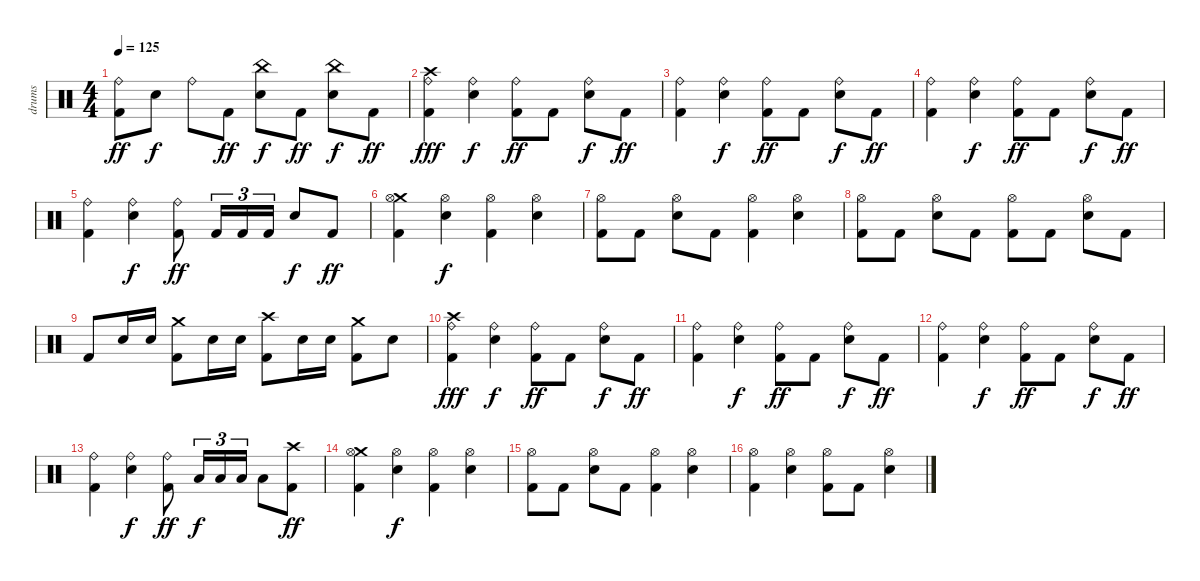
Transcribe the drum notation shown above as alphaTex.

\track ("drums" "drums") {instrument percussion}
\staff {score}
\articulation defaults
\ts (4 4)
\tempo 125
\clef neutral
\ks c
("Kick (hit) 2" "Ride (bell)").8{dy ff} "Snare (hit) 2".8{dy f} "Ride (bell)".8 "Kick (hit) 2".8{dy ff} ("China (hit)" "Snare (hit) 2").8{dy f} "Kick (hit) 2".8{dy ff} ("China (hit)" "Snare (hit) 2").8{dy f} "Kick (hit) 2".8{dy ff} |
("Kick (hit) 2" "Crash high (hit)" "Ride (bell)").4{dy fff} ("Ride (bell)" "Snare (hit) 2").4{dy f} ("Kick (hit) 2" "Ride (bell)").8{dy ff} "Kick (hit) 2".8 ("Ride (bell)" "Snare (hit) 2").8{dy f} "Kick (hit) 2".8{dy ff} |
("Kick (hit) 2" "Ride (bell)").4 ("Ride (bell)" "Snare (hit) 2").4{dy f} ("Kick (hit) 2" "Ride (bell)").8{dy ff} "Kick (hit) 2".8 ("Ride (bell)" "Snare (hit) 2").8{dy f} "Kick (hit) 2".8{dy ff} |
("Kick (hit) 2" "Ride (bell)").4 ("Ride (bell)" "Snare (hit) 2").4{dy f} ("Kick (hit) 2" "Ride (bell)").8{dy ff} "Kick (hit) 2".8 ("Ride (bell)" "Snare (hit) 2").8{dy f} "Kick (hit) 2".8{dy ff} |
("Kick (hit) 2" "Ride (bell)").4 ("Ride (bell)" "Snare (hit) 2").4{dy f} ("Kick (hit) 2" "Ride (bell)").8{dy ff} "Kick (hit) 2".16{tu (3 2)} "Kick (hit) 2".16{tu (3 2)} "Kick (hit) 2".16{tu (3 2)} "Snare (hit) 2".8{dy f} "Kick (hit) 2".8{dy ff} |
("Kick (hit) 2" "Crash medium (hit)" "Hi-Hat (open)").4 ("Hi-Hat (open)" "Snare (hit) 2").4{dy f} ("Kick (hit) 2" "Hi-Hat (open)").4 ("Hi-Hat (open)" "Snare (hit) 2").4 |
("Kick (hit) 2" "Hi-Hat (open)").8 "Kick (hit) 2".8 ("Hi-Hat (open)" "Snare (hit) 2").8 "Kick (hit) 2".8 ("Kick (hit) 2" "Hi-Hat (open)").4 ("Hi-Hat (open)" "Snare (hit) 2").4 |
("Kick (hit) 2" "Hi-Hat (open)").8 "Kick (hit) 2".8 ("Hi-Hat (open)" "Snare (hit) 2").8 "Kick (hit) 2".8 ("Kick (hit) 2" "Hi-Hat (open)").8 "Kick (hit) 2".8 ("Hi-Hat (open)" "Snare (hit) 2").8 "Kick (hit) 2".8 |
"Kick (hit) 2".8 "Snare (hit) 2".16 "Snare (hit) 2".16 ("Kick (hit) 2" "Crash medium (hit)").8 "Snare (hit) 2".16 "Snare (hit) 2".16 ("Kick (hit) 2" "Crash high (hit)").8 "Snare (hit) 2".16 "Snare (hit) 2".16 ("Kick (hit) 2" "Crash medium (hit)").8 "Snare (hit) 2".8 |
("Kick (hit) 2" "Crash high (hit)" "Ride (bell)").4{dy fff} ("Ride (bell)" "Snare (hit) 2").4{dy f} ("Kick (hit) 2" "Ride (bell)").8{dy ff} "Kick (hit) 2".8 ("Ride (bell)" "Snare (hit) 2").8{dy f} "Kick (hit) 2".8{dy ff} |
("Kick (hit) 2" "Ride (bell)").4 ("Ride (bell)" "Snare (hit) 2").4{dy f} ("Kick (hit) 2" "Ride (bell)").8{dy ff} "Kick (hit) 2".8 ("Ride (bell)" "Snare (hit) 2").8{dy f} "Kick (hit) 2".8{dy ff} |
("Kick (hit) 2" "Ride (bell)").4 ("Ride (bell)" "Snare (hit) 2").4{dy f} ("Kick (hit) 2" "Ride (bell)").8{dy ff} "Kick (hit) 2".8 ("Ride (bell)" "Snare (hit) 2").8{dy f} "Kick (hit) 2".8{dy ff} |
("Kick (hit) 2" "Ride (bell)").4 ("Ride (bell)" "Snare (hit) 2").4{dy f} ("Kick (hit) 2" "Ride (bell)").8{dy ff} "Low Tom (hit)".16{tu (3 2) dy f} "Low Tom (hit)".16{tu (3 2)} "Low Tom (hit)".16{tu (3 2)} "Low Tom (hit)".8 ("Kick (hit) 2" "Crash high (hit)").8{dy ff} |
("Kick (hit) 2" "Crash medium (hit)" "Hi-Hat (open)").4 ("Hi-Hat (open)" "Snare (hit) 2").4{dy f} ("Kick (hit) 2" "Hi-Hat (open)").4 ("Hi-Hat (open)" "Snare (hit) 2").4 |
("Kick (hit) 2" "Hi-Hat (open)").8 "Kick (hit) 2".8 ("Hi-Hat (open)" "Snare (hit) 2").8 "Kick (hit) 2".8 ("Kick (hit) 2" "Hi-Hat (open)").4 ("Hi-Hat (open)" "Snare (hit) 2").4 |
("Kick (hit) 2" "Hi-Hat (open)").4 ("Hi-Hat (open)" "Snare (hit) 2").4 ("Kick (hit) 2" "Hi-Hat (open)").8 "Kick (hit) 2".8 ("Hi-Hat (open)" "Snare (hit) 2").4
